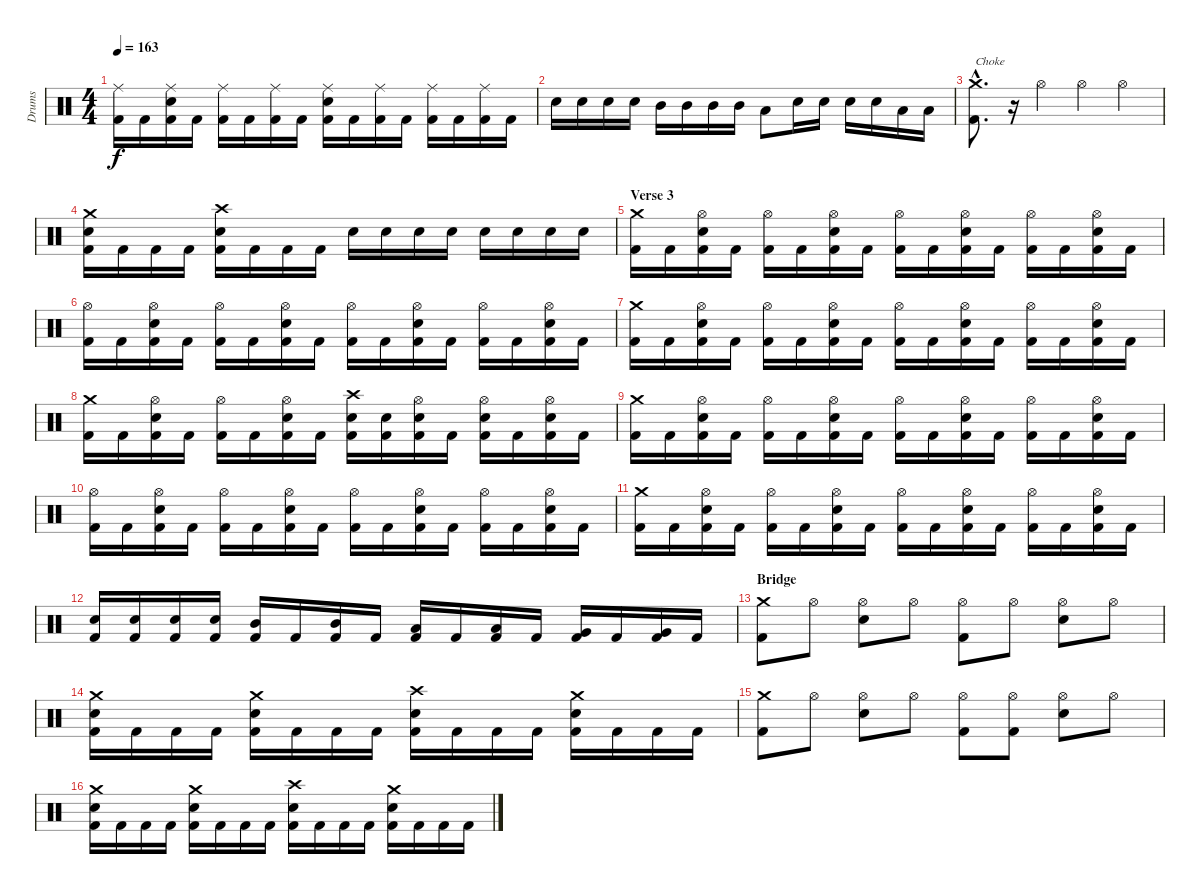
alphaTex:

\track ("Drums" "Drums") {instrument percussion}
\staff {score}
\articulation defaults
\ts (4 4)
\tempo 163
\clef neutral
\ks c
("Ride (middle)" "Kick (hit) 2").16{dy f} "Kick (hit) 2".16 ("Ride (middle)" "Snare (hit) 2" "Kick (hit) 2").16 "Kick (hit) 2".16 ("Ride (middle)" "Kick (hit) 2").16 "Kick (hit) 2".16 ("Ride (middle)" "Kick (hit) 2").16 "Kick (hit) 2".16 ("Ride (middle)" "Snare (hit) 2" "Kick (hit) 2").16 "Kick (hit) 2".16 ("Ride (middle)" "Kick (hit) 2").16 "Kick (hit) 2".16 ("Ride (middle)" "Kick (hit) 2").16 "Kick (hit) 2".16 ("Ride (middle)" "Kick (hit) 2").16 "Kick (hit) 2".16 |
"Snare (hit) 2".16 "Snare (hit) 2".16 "Snare (hit) 2".16 "Snare (hit) 2".16 "Mid Tom (hit)".16 "Mid Tom (hit)".16 "Mid Tom (hit)".16 "Mid Tom (hit)".16 "Low Tom (hit)".8 "Snare (hit) 2".16 "Snare (hit) 2".16 "Snare (hit) 2".16 "Snare (hit) 2".16 "Low Tom (hit)".16 "Low Tom (hit)".16 |
("Crash medium (hit)"{hac} "Kick (hit) 2"{hac}).8{d txt "Choke"} r.16{volume 0} "Hi-Hat (open)".4{volume 14} "Hi-Hat (open)".4 "Hi-Hat (open)".4 |
("Crash medium (hit)" "Snare (hit) 2" "Kick (hit) 2").16 "Kick (hit) 2".16 "Kick (hit) 2".16 "Kick (hit) 2".16 ("Crash high (hit)" "Snare (hit) 2" "Kick (hit) 2").16 "Kick (hit) 2".16 "Kick (hit) 2".16 "Kick (hit) 2".16 "Snare (hit) 2".16 "Snare (hit) 2".16 "Snare (hit) 2".16 "Snare (hit) 2".16 "Snare (hit) 2".16 "Snare (hit) 2".16 "Snare (hit) 2".16 "Snare (hit) 2".16 |
\section ("" "Verse 3")
("Crash medium (hit)" "Kick (hit) 2").16{volume 14} "Kick (hit) 2".16 ("Hi-Hat (open)" "Snare (hit) 2" "Kick (hit) 2").16 "Kick (hit) 2".16 ("Hi-Hat (open)" "Kick (hit) 2").16 "Kick (hit) 2".16 ("Hi-Hat (open)" "Snare (hit) 2" "Kick (hit) 2").16 "Kick (hit) 2".16 ("Hi-Hat (open)" "Kick (hit) 2").16 "Kick (hit) 2".16 ("Hi-Hat (open)" "Snare (hit) 2" "Kick (hit) 2").16 "Kick (hit) 2".16 ("Hi-Hat (open)" "Kick (hit) 2").16 "Kick (hit) 2".16 ("Hi-Hat (open)" "Snare (hit) 2" "Kick (hit) 2").16 "Kick (hit) 2".16 |
("Hi-Hat (open)" "Kick (hit) 2").16 "Kick (hit) 2".16 ("Hi-Hat (open)" "Snare (hit) 2" "Kick (hit) 2").16 "Kick (hit) 2".16 ("Hi-Hat (open)" "Kick (hit) 2").16 "Kick (hit) 2".16 ("Hi-Hat (open)" "Snare (hit) 2" "Kick (hit) 2").16 "Kick (hit) 2".16 ("Hi-Hat (open)" "Kick (hit) 2").16 "Kick (hit) 2".16 ("Hi-Hat (open)" "Snare (hit) 2" "Kick (hit) 2").16 "Kick (hit) 2".16 ("Hi-Hat (open)" "Kick (hit) 2").16 "Kick (hit) 2".16 ("Hi-Hat (open)" "Snare (hit) 2" "Kick (hit) 2").16 "Kick (hit) 2".16 |
("Crash medium (hit)" "Kick (hit) 2").16 "Kick (hit) 2".16 ("Hi-Hat (open)" "Snare (hit) 2" "Kick (hit) 2").16 "Kick (hit) 2".16 ("Hi-Hat (open)" "Kick (hit) 2").16 "Kick (hit) 2".16 ("Hi-Hat (open)" "Snare (hit) 2" "Kick (hit) 2").16 "Kick (hit) 2".16 ("Hi-Hat (open)" "Kick (hit) 2").16 "Kick (hit) 2".16 ("Hi-Hat (open)" "Snare (hit) 2" "Kick (hit) 2").16 "Kick (hit) 2".16 ("Hi-Hat (open)" "Kick (hit) 2").16 "Kick (hit) 2".16 ("Hi-Hat (open)" "Snare (hit) 2" "Kick (hit) 2").16 "Kick (hit) 2".16 |
("Crash medium (hit)" "Kick (hit) 2").16 "Kick (hit) 2".16 ("Hi-Hat (open)" "Snare (hit) 2" "Kick (hit) 2").16 "Kick (hit) 2".16 ("Hi-Hat (open)" "Kick (hit) 2").16 "Kick (hit) 2".16 ("Hi-Hat (open)" "Snare (hit) 2" "Kick (hit) 2").16 "Kick (hit) 2".16 ("Crash high (hit)" "Snare (hit) 2" "Kick (hit) 2").16 ("Snare (hit) 2" "Kick (hit) 2").16 ("Hi-Hat (open)" "Snare (hit) 2" "Kick (hit) 2").16 "Kick (hit) 2".16 ("Hi-Hat (open)" "Snare (hit) 2" "Kick (hit) 2").16 "Kick (hit) 2".16 ("Hi-Hat (open)" "Snare (hit) 2" "Kick (hit) 2").16 "Kick (hit) 2".16 |
("Crash medium (hit)" "Kick (hit) 2").16 "Kick (hit) 2".16 ("Hi-Hat (open)" "Snare (hit) 2" "Kick (hit) 2").16 "Kick (hit) 2".16 ("Hi-Hat (open)" "Kick (hit) 2").16 "Kick (hit) 2".16 ("Hi-Hat (open)" "Snare (hit) 2" "Kick (hit) 2").16 "Kick (hit) 2".16 ("Hi-Hat (open)" "Kick (hit) 2").16 "Kick (hit) 2".16 ("Hi-Hat (open)" "Snare (hit) 2" "Kick (hit) 2").16 "Kick (hit) 2".16 ("Hi-Hat (open)" "Kick (hit) 2").16 "Kick (hit) 2".16 ("Hi-Hat (open)" "Snare (hit) 2" "Kick (hit) 2").16 "Kick (hit) 2".16 |
("Hi-Hat (open)" "Kick (hit) 2").16 "Kick (hit) 2".16 ("Hi-Hat (open)" "Snare (hit) 2" "Kick (hit) 2").16 "Kick (hit) 2".16 ("Hi-Hat (open)" "Kick (hit) 2").16 "Kick (hit) 2".16 ("Hi-Hat (open)" "Snare (hit) 2" "Kick (hit) 2").16 "Kick (hit) 2".16 ("Hi-Hat (open)" "Kick (hit) 2").16 "Kick (hit) 2".16 ("Hi-Hat (open)" "Snare (hit) 2" "Kick (hit) 2").16 "Kick (hit) 2".16 ("Hi-Hat (open)" "Kick (hit) 2").16 "Kick (hit) 2".16 ("Hi-Hat (open)" "Snare (hit) 2" "Kick (hit) 2").16 "Kick (hit) 2".16 |
("Crash medium (hit)" "Kick (hit) 2").16 "Kick (hit) 2".16 ("Hi-Hat (open)" "Snare (hit) 2" "Kick (hit) 2").16 "Kick (hit) 2".16 ("Hi-Hat (open)" "Kick (hit) 2").16 "Kick (hit) 2".16 ("Hi-Hat (open)" "Snare (hit) 2" "Kick (hit) 2").16 "Kick (hit) 2".16 ("Hi-Hat (open)" "Kick (hit) 2").16 "Kick (hit) 2".16 ("Hi-Hat (open)" "Snare (hit) 2" "Kick (hit) 2").16 "Kick (hit) 2".16 ("Hi-Hat (open)" "Kick (hit) 2").16 "Kick (hit) 2".16 ("Hi-Hat (open)" "Snare (hit) 2" "Kick (hit) 2").16 "Kick (hit) 2".16 |
("Snare (hit) 2" "Kick (hit) 2").16 ("Snare (hit) 2" "Kick (hit) 2").16 ("Snare (hit) 2" "Kick (hit) 2").16 ("Snare (hit) 2" "Kick (hit) 2").16 ("Mid Tom (hit)" "Kick (hit) 2").16 "Kick (hit) 2".16 ("Mid Tom (hit)" "Kick (hit) 2").16 "Kick (hit) 2".16 ("Low Tom (hit)" "Kick (hit) 2").16 "Kick (hit) 2".16 ("Low Tom (hit)" "Kick (hit) 2").16 "Kick (hit) 2".16 ("Very Low Tom (hit)" "Kick (hit) 2").16 "Kick (hit) 2".16 ("Very Low Tom (hit)" "Kick (hit) 2").16 "Kick (hit) 2".16 |
\section ("" "Bridge")
("Crash medium (hit)" "Kick (hit) 2").8 "Hi-Hat (open)".8 ("Hi-Hat (open)" "Snare (hit) 2").8 "Hi-Hat (open)".8 ("Hi-Hat (open)" "Kick (hit) 2").8 "Hi-Hat (open)".8 ("Hi-Hat (open)" "Snare (hit) 2").8 "Hi-Hat (open)".8 |
("Crash medium (hit)" "Snare (hit) 2" "Kick (hit) 2").16 "Kick (hit) 2".16 "Kick (hit) 2".16 "Kick (hit) 2".16 ("Crash medium (hit)" "Snare (hit) 2" "Kick (hit) 2").16 "Kick (hit) 2".16 "Kick (hit) 2".16 "Kick (hit) 2".16 ("Crash high (hit)" "Snare (hit) 2" "Kick (hit) 2").16 "Kick (hit) 2".16 "Kick (hit) 2".16 "Kick (hit) 2".16 ("Crash medium (hit)" "Snare (hit) 2" "Kick (hit) 2").16 "Kick (hit) 2".16 "Kick (hit) 2".16 "Kick (hit) 2".16 |
("Crash medium (hit)" "Kick (hit) 2").8 "Hi-Hat (open)".8 ("Hi-Hat (open)" "Snare (hit) 2").8 "Hi-Hat (open)".8 ("Hi-Hat (open)" "Kick (hit) 2").8 ("Hi-Hat (open)" "Kick (hit) 2").8 ("Hi-Hat (open)" "Snare (hit) 2").8 "Hi-Hat (open)".8 |
("Crash medium (hit)" "Snare (hit) 2" "Kick (hit) 2").16 "Kick (hit) 2".16 "Kick (hit) 2".16 "Kick (hit) 2".16 ("Crash medium (hit)" "Snare (hit) 2" "Kick (hit) 2").16 "Kick (hit) 2".16 "Kick (hit) 2".16 "Kick (hit) 2".16 ("Crash high (hit)" "Snare (hit) 2" "Kick (hit) 2").16 "Kick (hit) 2".16 "Kick (hit) 2".16 "Kick (hit) 2".16 ("Crash medium (hit)" "Snare (hit) 2" "Kick (hit) 2").16 "Kick (hit) 2".16 "Kick (hit) 2".16 "Kick (hit) 2".16
